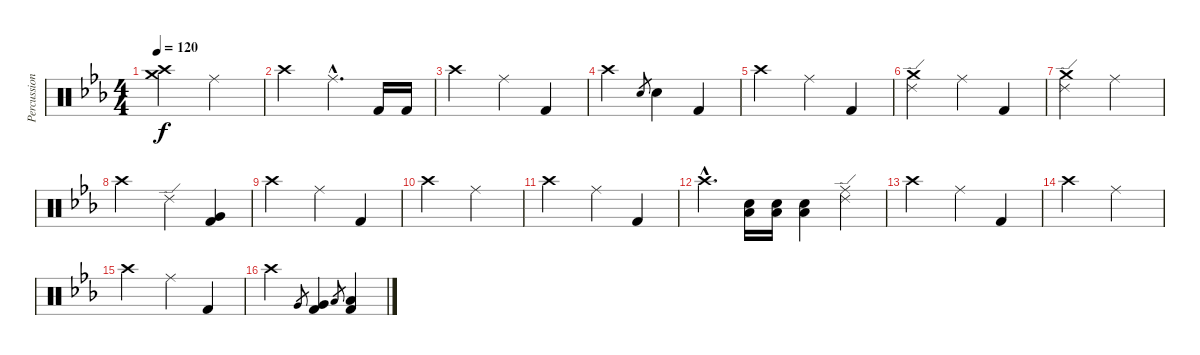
\track ("Percussion" "Percussion") {instrument percussion}
\staff {score}
\articulation defaults
\ts (4 4)
\tempo 120
\clef neutral
\ks eb
("Crash high (hit)" "Crash medium (hit)").2{dy f} "Ride (middle)".2 |
"Crash high (hit)".2 "Ride (middle)"{hac}.4{d} "Kick (hit) 2".16 "Kick (hit) 2".16 |
"Crash high (hit)".2 "Ride (middle)".4 "Kick (hit) 2".4 |
"Crash high (hit)".2 "Electric Snare (hit)".8{gr} "Electric Snare (hit)".4 "Kick (hit) 2".4 |
"Crash high (hit)".2 "Ride (middle)".4 "Kick (hit) 2".4 |
("Ride (edge) 2" "Crash medium (hit)").2 "Ride (middle)".4 "Kick (hit) 2".4 |
("Ride (edge) 2" "Crash medium (hit)").2 "Ride (middle)".2 |
"Crash high (hit)".2 "Ride (edge) 2".4 ("Very Low Tom (hit)" "Kick (hit) 2").4 |
"Crash high (hit)".2 "Ride (middle)".4 "Kick (hit) 2".4 |
"Crash high (hit)".2 "Ride (middle)".2 |
"Crash high (hit)".2 "Ride (middle)".4 "Kick (hit) 2".4 |
"Crash high (hit)"{hac}.4{d} ("Electric Snare (hit)" "Low Floor Tom (hit)").16 ("Electric Snare (hit)" "Low Floor Tom (hit)").16 ("Electric Snare (hit)" "Low Floor Tom (hit)").4 ("Ride (middle)" "Ride (edge) 2").4 |
"Crash high (hit)".2 "Ride (middle)".4 "Kick (hit) 2".4 |
"Crash high (hit)".2 "Ride (middle)".2 |
"Crash high (hit)".2 "Ride (middle)".4 "Kick (hit) 2".4 |
"Crash high (hit)".2 "Very Low Tom (hit)".8{gr} ("Very Low Tom (hit)" "Kick (hit) 2").4 "Low Floor Tom (hit)".8{gr} ("Low Floor Tom (hit)" "Kick (hit) 2").4
